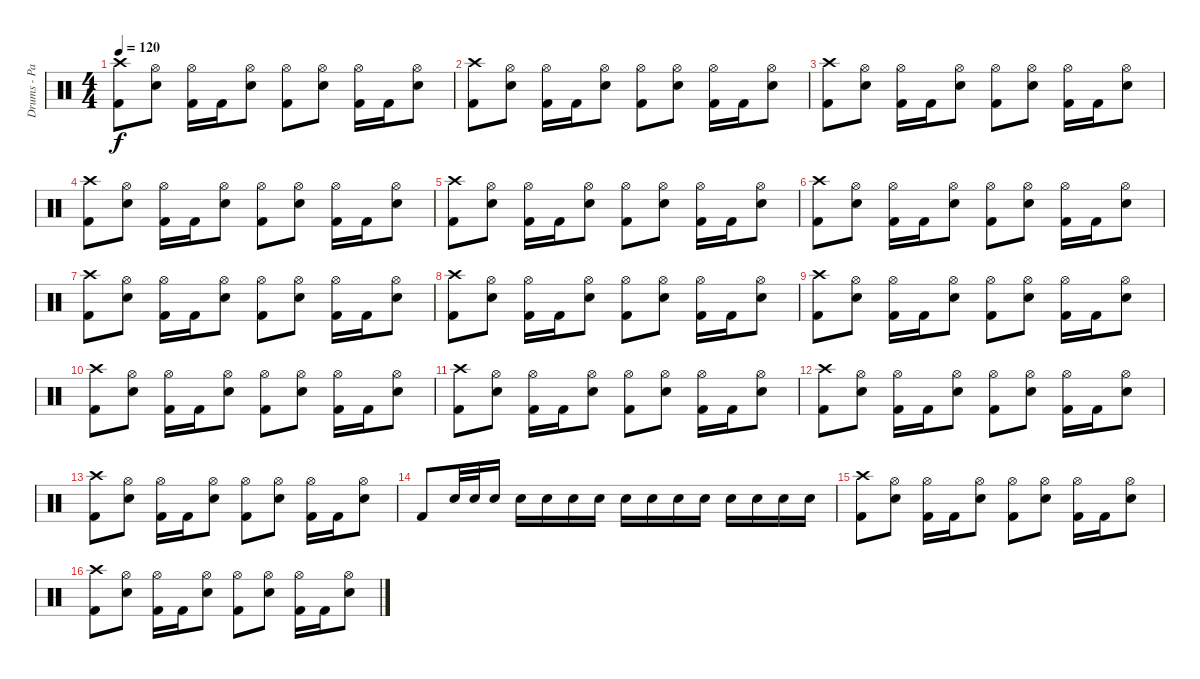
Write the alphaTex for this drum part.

\track ("Drums - Pat Thetic" "Drums - Pa") {instrument percussion}
\staff {score}
\articulation defaults
\ts (4 4)
\tempo 120
\clef neutral
\ks c
("Crash high (hit)" "Kick (hit) 2").8{dy f} ("Hi-Hat (open)" "Electric Snare (hit)").8 ("Hi-Hat (open)" "Kick (hit) 2").16 "Kick (hit) 2".16 ("Hi-Hat (open)" "Electric Snare (hit)").8 ("Hi-Hat (open)" "Kick (hit) 2").8 ("Hi-Hat (open)" "Electric Snare (hit)").8 ("Hi-Hat (open)" "Kick (hit) 2").16 "Kick (hit) 2".16 ("Hi-Hat (open)" "Electric Snare (hit)").8 |
("Crash high (hit)" "Kick (hit) 2").8 ("Hi-Hat (open)" "Electric Snare (hit)").8 ("Hi-Hat (open)" "Kick (hit) 2").16 "Kick (hit) 2".16 ("Hi-Hat (open)" "Electric Snare (hit)").8 ("Hi-Hat (open)" "Kick (hit) 2").8 ("Hi-Hat (open)" "Electric Snare (hit)").8 ("Hi-Hat (open)" "Kick (hit) 2").16 "Kick (hit) 2".16 ("Hi-Hat (open)" "Electric Snare (hit)").8 |
("Crash high (hit)" "Kick (hit) 2").8 ("Hi-Hat (open)" "Electric Snare (hit)").8 ("Hi-Hat (open)" "Kick (hit) 2").16 "Kick (hit) 2".16 ("Hi-Hat (open)" "Electric Snare (hit)").8 ("Hi-Hat (open)" "Kick (hit) 2").8 ("Hi-Hat (open)" "Electric Snare (hit)").8 ("Hi-Hat (open)" "Kick (hit) 2").16 "Kick (hit) 2".16 ("Hi-Hat (open)" "Electric Snare (hit)").8 |
("Crash high (hit)" "Kick (hit) 2").8 ("Hi-Hat (open)" "Electric Snare (hit)").8 ("Hi-Hat (open)" "Kick (hit) 2").16 "Kick (hit) 2".16 ("Hi-Hat (open)" "Electric Snare (hit)").8 ("Hi-Hat (open)" "Kick (hit) 2").8 ("Hi-Hat (open)" "Electric Snare (hit)").8 ("Hi-Hat (open)" "Kick (hit) 2").16 "Kick (hit) 2".16 ("Hi-Hat (open)" "Electric Snare (hit)").8 |
("Crash high (hit)" "Kick (hit) 2").8 ("Hi-Hat (open)" "Electric Snare (hit)").8 ("Hi-Hat (open)" "Kick (hit) 2").16 "Kick (hit) 2".16 ("Hi-Hat (open)" "Electric Snare (hit)").8 ("Hi-Hat (open)" "Kick (hit) 2").8 ("Hi-Hat (open)" "Electric Snare (hit)").8 ("Hi-Hat (open)" "Kick (hit) 2").16 "Kick (hit) 2".16 ("Hi-Hat (open)" "Electric Snare (hit)").8 |
("Crash high (hit)" "Kick (hit) 2").8 ("Hi-Hat (open)" "Electric Snare (hit)").8 ("Hi-Hat (open)" "Kick (hit) 2").16 "Kick (hit) 2".16 ("Hi-Hat (open)" "Electric Snare (hit)").8 ("Hi-Hat (open)" "Kick (hit) 2").8 ("Hi-Hat (open)" "Electric Snare (hit)").8 ("Hi-Hat (open)" "Kick (hit) 2").16 "Kick (hit) 2".16 ("Hi-Hat (open)" "Electric Snare (hit)").8 |
("Crash high (hit)" "Kick (hit) 2").8 ("Hi-Hat (open)" "Electric Snare (hit)").8 ("Hi-Hat (open)" "Kick (hit) 2").16 "Kick (hit) 2".16 ("Hi-Hat (open)" "Electric Snare (hit)").8 ("Hi-Hat (open)" "Kick (hit) 2").8 ("Hi-Hat (open)" "Electric Snare (hit)").8 ("Hi-Hat (open)" "Kick (hit) 2").16 "Kick (hit) 2".16 ("Hi-Hat (open)" "Electric Snare (hit)").8 |
("Crash high (hit)" "Kick (hit) 2").8 ("Hi-Hat (open)" "Electric Snare (hit)").8 ("Hi-Hat (open)" "Kick (hit) 2").16 "Kick (hit) 2".16 ("Hi-Hat (open)" "Electric Snare (hit)").8 ("Hi-Hat (open)" "Kick (hit) 2").8 ("Hi-Hat (open)" "Electric Snare (hit)").8 ("Hi-Hat (open)" "Kick (hit) 2").16 "Kick (hit) 2".16 ("Hi-Hat (open)" "Electric Snare (hit)").8 |
("Crash high (hit)" "Kick (hit) 2").8 ("Hi-Hat (open)" "Electric Snare (hit)").8 ("Hi-Hat (open)" "Kick (hit) 2").16 "Kick (hit) 2".16 ("Hi-Hat (open)" "Electric Snare (hit)").8 ("Hi-Hat (open)" "Kick (hit) 2").8 ("Hi-Hat (open)" "Electric Snare (hit)").8 ("Hi-Hat (open)" "Kick (hit) 2").16 "Kick (hit) 2".16 ("Hi-Hat (open)" "Electric Snare (hit)").8 |
("Crash high (hit)" "Kick (hit) 2").8 ("Hi-Hat (open)" "Electric Snare (hit)").8 ("Hi-Hat (open)" "Kick (hit) 2").16 "Kick (hit) 2".16 ("Hi-Hat (open)" "Electric Snare (hit)").8 ("Hi-Hat (open)" "Kick (hit) 2").8 ("Hi-Hat (open)" "Electric Snare (hit)").8 ("Hi-Hat (open)" "Kick (hit) 2").16 "Kick (hit) 2".16 ("Hi-Hat (open)" "Electric Snare (hit)").8 |
("Crash high (hit)" "Kick (hit) 2").8 ("Hi-Hat (open)" "Electric Snare (hit)").8 ("Hi-Hat (open)" "Kick (hit) 2").16 "Kick (hit) 2".16 ("Hi-Hat (open)" "Electric Snare (hit)").8 ("Hi-Hat (open)" "Kick (hit) 2").8 ("Hi-Hat (open)" "Electric Snare (hit)").8 ("Hi-Hat (open)" "Kick (hit) 2").16 "Kick (hit) 2".16 ("Hi-Hat (open)" "Electric Snare (hit)").8 |
("Crash high (hit)" "Kick (hit) 2").8 ("Hi-Hat (open)" "Electric Snare (hit)").8 ("Hi-Hat (open)" "Kick (hit) 2").16 "Kick (hit) 2".16 ("Hi-Hat (open)" "Electric Snare (hit)").8 ("Hi-Hat (open)" "Kick (hit) 2").8 ("Hi-Hat (open)" "Electric Snare (hit)").8 ("Hi-Hat (open)" "Kick (hit) 2").16 "Kick (hit) 2".16 ("Hi-Hat (open)" "Electric Snare (hit)").8 |
("Crash high (hit)" "Kick (hit) 2").8 ("Hi-Hat (open)" "Electric Snare (hit)").8 ("Hi-Hat (open)" "Kick (hit) 2").16 "Kick (hit) 2".16 ("Hi-Hat (open)" "Electric Snare (hit)").8 ("Hi-Hat (open)" "Kick (hit) 2").8 ("Hi-Hat (open)" "Electric Snare (hit)").8 ("Hi-Hat (open)" "Kick (hit) 2").16 "Kick (hit) 2".16 ("Hi-Hat (open)" "Electric Snare (hit)").8 |
"Kick (hit) 2".8 "Electric Snare (hit)".32 "Electric Snare (hit)".32 "Electric Snare (hit)".16 "Electric Snare (hit)".16 "Electric Snare (hit)".16 "Electric Snare (hit)".16 "Electric Snare (hit)".16 "Electric Snare (hit)".16 "Electric Snare (hit)".16 "Electric Snare (hit)".16 "Electric Snare (hit)".16 "Electric Snare (hit)".16 "Electric Snare (hit)".16 "Electric Snare (hit)".16 "Electric Snare (hit)".16 |
("Crash high (hit)" "Kick (hit) 2").8 ("Hi-Hat (open)" "Electric Snare (hit)").8 ("Hi-Hat (open)" "Kick (hit) 2").16 "Kick (hit) 2".16 ("Hi-Hat (open)" "Electric Snare (hit)").8 ("Hi-Hat (open)" "Kick (hit) 2").8 ("Hi-Hat (open)" "Electric Snare (hit)").8 ("Hi-Hat (open)" "Kick (hit) 2").16 "Kick (hit) 2".16 ("Hi-Hat (open)" "Electric Snare (hit)").8 |
("Crash high (hit)" "Kick (hit) 2").8 ("Hi-Hat (open)" "Electric Snare (hit)").8 ("Hi-Hat (open)" "Kick (hit) 2").16 "Kick (hit) 2".16 ("Hi-Hat (open)" "Electric Snare (hit)").8 ("Hi-Hat (open)" "Kick (hit) 2").8 ("Hi-Hat (open)" "Electric Snare (hit)").8 ("Hi-Hat (open)" "Kick (hit) 2").16 "Kick (hit) 2".16 ("Hi-Hat (open)" "Electric Snare (hit)").8
